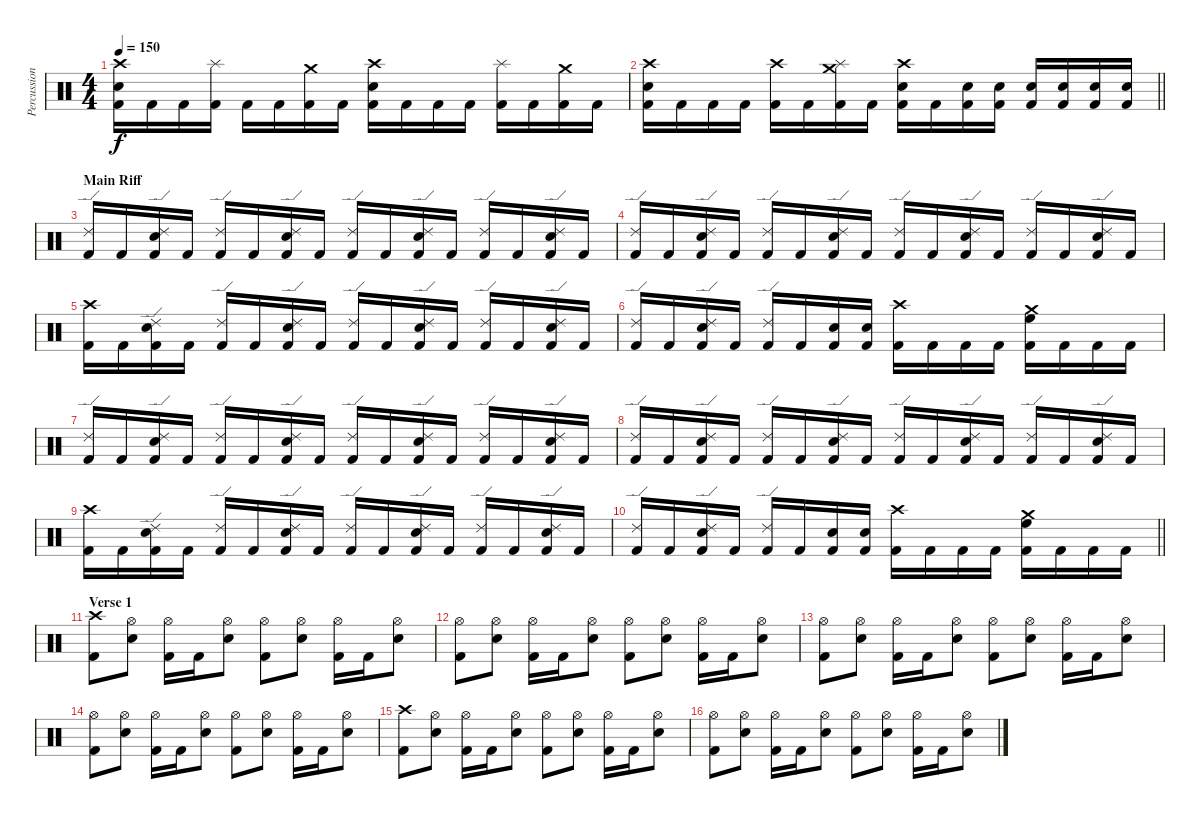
\track ("Percussion" "Percussion") {instrument percussion}
\staff {score}
\articulation defaults
\ts (4 4)
\tempo 150
\clef neutral
\ks c
("Crash high (hit)" "Electric Snare (hit)" "Kick (hit) 2").16{dy f} "Kick (hit) 2".16 "Kick (hit) 2".16 ("Splash (hit)" "Kick (hit) 2").16 "Kick (hit) 2".16 "Kick (hit) 2".16 ("Crash medium (hit)" "Kick (hit) 2").16 "Kick (hit) 2".16 ("Crash high (hit)" "Electric Snare (hit)" "Kick (hit) 2").16 "Kick (hit) 2".16 "Kick (hit) 2".16 "Kick (hit) 2".16 ("Splash (hit)" "Kick (hit) 2").16 "Kick (hit) 2".16 ("Crash medium (hit)" "Kick (hit) 2").16 "Kick (hit) 2".16 |
\barLineRight lightlight
("Crash high (hit)" "Electric Snare (hit)" "Kick (hit) 2").16 "Kick (hit) 2".16 "Kick (hit) 2".16 "Kick (hit) 2".16 ("Crash high (hit)" "Kick (hit) 2").16 "Kick (hit) 2".16 ("Splash (hit)" "Crash medium (hit)" "Kick (hit) 2").16 "Kick (hit) 2".16 ("Crash high (hit)" "Electric Snare (hit)" "Kick (hit) 2").16 "Kick (hit) 2".16 ("Electric Snare (hit)" "Kick (hit) 2").16 ("Electric Snare (hit)" "Kick (hit) 2").16 ("Electric Snare (hit)" "Kick (hit) 2").16 ("Electric Snare (hit)" "Kick (hit) 2").16 ("Electric Snare (hit)" "Kick (hit) 2").16 ("Electric Snare (hit)" "Kick (hit) 2").16 |
\section ("" "Main Riff")
("Ride (edge) 2" "Kick (hit) 2").16 "Kick (hit) 2".16 ("Ride (edge) 2" "Electric Snare (hit)" "Kick (hit) 2").16 "Kick (hit) 2".16 ("Ride (edge) 2" "Kick (hit) 2").16 "Kick (hit) 2".16 ("Ride (edge) 2" "Electric Snare (hit)" "Kick (hit) 2").16 "Kick (hit) 2".16 ("Ride (edge) 2" "Kick (hit) 2").16 "Kick (hit) 2".16 ("Ride (edge) 2" "Electric Snare (hit)" "Kick (hit) 2").16 "Kick (hit) 2".16 ("Ride (edge) 2" "Kick (hit) 2").16 "Kick (hit) 2".16 ("Ride (edge) 2" "Electric Snare (hit)" "Kick (hit) 2").16 "Kick (hit) 2".16 |
("Ride (edge) 2" "Kick (hit) 2").16 "Kick (hit) 2".16 ("Ride (edge) 2" "Electric Snare (hit)" "Kick (hit) 2").16 "Kick (hit) 2".16 ("Ride (edge) 2" "Kick (hit) 2").16 "Kick (hit) 2".16 ("Ride (edge) 2" "Electric Snare (hit)" "Kick (hit) 2").16 "Kick (hit) 2".16 ("Ride (edge) 2" "Kick (hit) 2").16 "Kick (hit) 2".16 ("Ride (edge) 2" "Electric Snare (hit)" "Kick (hit) 2").16 "Kick (hit) 2".16 ("Ride (edge) 2" "Kick (hit) 2").16 "Kick (hit) 2".16 ("Ride (edge) 2" "Electric Snare (hit)" "Kick (hit) 2").16 "Kick (hit) 2".16 |
("Crash high (hit)" "Kick (hit) 2").16 "Kick (hit) 2".16 ("Ride (edge) 2" "Electric Snare (hit)" "Kick (hit) 2").16 "Kick (hit) 2".16 ("Ride (edge) 2" "Kick (hit) 2").16 "Kick (hit) 2".16 ("Ride (edge) 2" "Electric Snare (hit)" "Kick (hit) 2").16 "Kick (hit) 2".16 ("Ride (edge) 2" "Kick (hit) 2").16 "Kick (hit) 2".16 ("Ride (edge) 2" "Electric Snare (hit)" "Kick (hit) 2").16 "Kick (hit) 2".16 ("Ride (edge) 2" "Kick (hit) 2").16 "Kick (hit) 2".16 ("Ride (edge) 2" "Electric Snare (hit)" "Kick (hit) 2").16 "Kick (hit) 2".16 |
("Ride (edge) 2" "Kick (hit) 2").16 "Kick (hit) 2".16 ("Ride (edge) 2" "Electric Snare (hit)" "Kick (hit) 2").16 "Kick (hit) 2".16 ("Ride (edge) 2" "Kick (hit) 2").16 "Kick (hit) 2".16 ("Electric Snare (hit)" "Kick (hit) 2").16 ("Electric Snare (hit)" "Kick (hit) 2").16 ("Crash high (hit)" "Kick (hit) 2").16 "Kick (hit) 2".16 "Kick (hit) 2".16 "Kick (hit) 2".16 ("Crash medium (hit)" "High Floor Tom (hit)" "Kick (hit) 2").16 "Kick (hit) 2".16 "Kick (hit) 2".16 "Kick (hit) 2".16 |
("Ride (edge) 2" "Kick (hit) 2").16 "Kick (hit) 2".16 ("Ride (edge) 2" "Electric Snare (hit)" "Kick (hit) 2").16 "Kick (hit) 2".16 ("Ride (edge) 2" "Kick (hit) 2").16 "Kick (hit) 2".16 ("Ride (edge) 2" "Electric Snare (hit)" "Kick (hit) 2").16 "Kick (hit) 2".16 ("Ride (edge) 2" "Kick (hit) 2").16 "Kick (hit) 2".16 ("Ride (edge) 2" "Electric Snare (hit)" "Kick (hit) 2").16 "Kick (hit) 2".16 ("Ride (edge) 2" "Kick (hit) 2").16 "Kick (hit) 2".16 ("Ride (edge) 2" "Electric Snare (hit)" "Kick (hit) 2").16 "Kick (hit) 2".16 |
("Ride (edge) 2" "Kick (hit) 2").16 "Kick (hit) 2".16 ("Ride (edge) 2" "Electric Snare (hit)" "Kick (hit) 2").16 "Kick (hit) 2".16 ("Ride (edge) 2" "Kick (hit) 2").16 "Kick (hit) 2".16 ("Ride (edge) 2" "Electric Snare (hit)" "Kick (hit) 2").16 "Kick (hit) 2".16 ("Ride (edge) 2" "Kick (hit) 2").16 "Kick (hit) 2".16 ("Ride (edge) 2" "Electric Snare (hit)" "Kick (hit) 2").16 "Kick (hit) 2".16 ("Ride (edge) 2" "Kick (hit) 2").16 "Kick (hit) 2".16 ("Ride (edge) 2" "Electric Snare (hit)" "Kick (hit) 2").16 "Kick (hit) 2".16 |
("Crash high (hit)" "Kick (hit) 2").16 "Kick (hit) 2".16 ("Ride (edge) 2" "Electric Snare (hit)" "Kick (hit) 2").16 "Kick (hit) 2".16 ("Ride (edge) 2" "Kick (hit) 2").16 "Kick (hit) 2".16 ("Ride (edge) 2" "Electric Snare (hit)" "Kick (hit) 2").16 "Kick (hit) 2".16 ("Ride (edge) 2" "Kick (hit) 2").16 "Kick (hit) 2".16 ("Ride (edge) 2" "Electric Snare (hit)" "Kick (hit) 2").16 "Kick (hit) 2".16 ("Ride (edge) 2" "Kick (hit) 2").16 "Kick (hit) 2".16 ("Ride (edge) 2" "Electric Snare (hit)" "Kick (hit) 2").16 "Kick (hit) 2".16 |
\barLineRight lightlight
("Ride (edge) 2" "Kick (hit) 2").16 "Kick (hit) 2".16 ("Ride (edge) 2" "Electric Snare (hit)" "Kick (hit) 2").16 "Kick (hit) 2".16 ("Ride (edge) 2" "Kick (hit) 2").16 "Kick (hit) 2".16 ("Electric Snare (hit)" "Kick (hit) 2").16 ("Electric Snare (hit)" "Kick (hit) 2").16 ("Crash high (hit)" "Kick (hit) 2").16 "Kick (hit) 2".16 "Kick (hit) 2".16 "Kick (hit) 2".16 ("Crash medium (hit)" "High Floor Tom (hit)" "Kick (hit) 2").16 "Kick (hit) 2".16 "Kick (hit) 2".16 "Kick (hit) 2".16 |
\section ("" "Verse 1")
("Crash high (hit)" "Kick (hit) 2").8 ("Hi-Hat (open)" "Electric Snare (hit)").8 ("Hi-Hat (open)" "Kick (hit) 2").16 "Kick (hit) 2".16 ("Hi-Hat (open)" "Electric Snare (hit)").8 ("Hi-Hat (open)" "Kick (hit) 2").8 ("Hi-Hat (open)" "Electric Snare (hit)").8 ("Hi-Hat (open)" "Kick (hit) 2").16 "Kick (hit) 2".16 ("Hi-Hat (open)" "Electric Snare (hit)").8 |
("Hi-Hat (open)" "Kick (hit) 2").8 ("Hi-Hat (open)" "Electric Snare (hit)").8 ("Hi-Hat (open)" "Kick (hit) 2").16 "Kick (hit) 2".16 ("Hi-Hat (open)" "Electric Snare (hit)").8 ("Hi-Hat (open)" "Kick (hit) 2").8 ("Hi-Hat (open)" "Electric Snare (hit)").8 ("Hi-Hat (open)" "Kick (hit) 2").16 "Kick (hit) 2".16 ("Hi-Hat (open)" "Electric Snare (hit)").8 |
("Hi-Hat (open)" "Kick (hit) 2").8 ("Hi-Hat (open)" "Electric Snare (hit)").8 ("Hi-Hat (open)" "Kick (hit) 2").16 "Kick (hit) 2".16 ("Hi-Hat (open)" "Electric Snare (hit)").8 ("Hi-Hat (open)" "Kick (hit) 2").8 ("Hi-Hat (open)" "Electric Snare (hit)").8 ("Hi-Hat (open)" "Kick (hit) 2").16 "Kick (hit) 2".16 ("Hi-Hat (open)" "Electric Snare (hit)").8 |
("Hi-Hat (open)" "Kick (hit) 2").8 ("Hi-Hat (open)" "Electric Snare (hit)").8 ("Hi-Hat (open)" "Kick (hit) 2").16 "Kick (hit) 2".16 ("Hi-Hat (open)" "Electric Snare (hit)").8 ("Hi-Hat (open)" "Kick (hit) 2").8 ("Hi-Hat (open)" "Electric Snare (hit)").8 ("Hi-Hat (open)" "Kick (hit) 2").16 "Kick (hit) 2".16 ("Hi-Hat (open)" "Electric Snare (hit)").8 |
("Crash high (hit)" "Kick (hit) 2").8 ("Hi-Hat (open)" "Electric Snare (hit)").8 ("Hi-Hat (open)" "Kick (hit) 2").16 "Kick (hit) 2".16 ("Hi-Hat (open)" "Electric Snare (hit)").8 ("Hi-Hat (open)" "Kick (hit) 2").8 ("Hi-Hat (open)" "Electric Snare (hit)").8 ("Hi-Hat (open)" "Kick (hit) 2").16 "Kick (hit) 2".16 ("Hi-Hat (open)" "Electric Snare (hit)").8 |
("Hi-Hat (open)" "Kick (hit) 2").8 ("Hi-Hat (open)" "Electric Snare (hit)").8 ("Hi-Hat (open)" "Kick (hit) 2").16 "Kick (hit) 2".16 ("Hi-Hat (open)" "Electric Snare (hit)").8 ("Hi-Hat (open)" "Kick (hit) 2").8 ("Hi-Hat (open)" "Electric Snare (hit)").8 ("Hi-Hat (open)" "Kick (hit) 2").16 "Kick (hit) 2".16 ("Hi-Hat (open)" "Electric Snare (hit)").8
